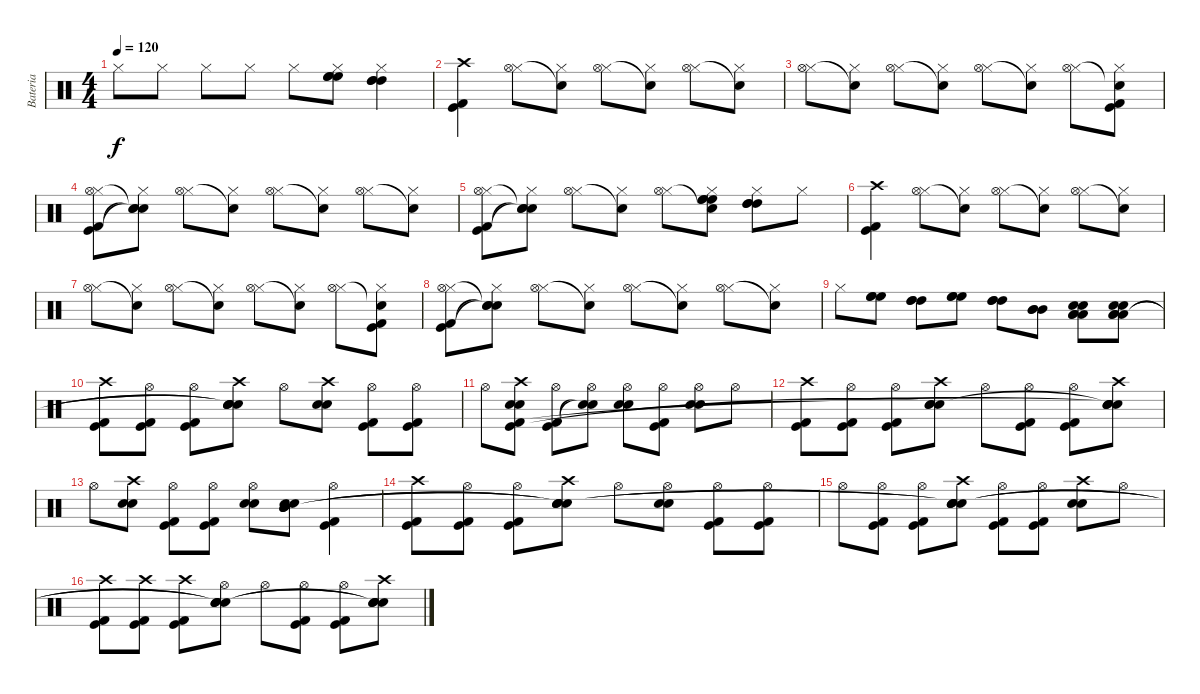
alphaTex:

\track ("Bateria" "Bateria") {instrument percussion}
\staff {score}
\articulation defaults
\ts (4 4)
\tempo 120
\clef neutral
\ks c "Hi-Hat (closed)".8{dy f} "Hi-Hat (closed)".8 "Hi-Hat (closed)".8 "Hi-Hat (closed)".8 "Hi-Hat (closed)".8
("Hi-Hat (closed)" "High Floor Tom (hit)" "High Floor Tom (hit)" "High Floor Tom (hit)").8 ("Hi-Hat (closed)" "High Tom (hit)" "High Tom (hit)" "High Tom (hit)").4 |
("Crash high (hit)" "Kick (hit)" "Kick (hit) 2").4 ("Hi-Hat (closed)" "Hi-Hat (open)").8 ("Hi-Hat (closed)" "Snare (hit)"{t}).8 ("Hi-Hat (closed)" "Hi-Hat (open)").8 ("Hi-Hat (closed)" "Snare (hit)"{t}).8 ("Hi-Hat (closed)" "Hi-Hat (open)").8 ("Hi-Hat (closed)" "Snare (hit)"{t}).8 |
("Hi-Hat (closed)" "Hi-Hat (open)").8 ("Hi-Hat (closed)" "Snare (hit)"{t}).8 ("Hi-Hat (closed)" "Hi-Hat (open)").8 ("Hi-Hat (closed)" "Snare (hit)"{t}).8 ("Hi-Hat (closed)" "Hi-Hat (open)").8 ("Hi-Hat (closed)" "Snare (hit)"{t}).8 ("Hi-Hat (closed)" "Hi-Hat (open)").8 ("Hi-Hat (closed)" "Snare (hit)"{t} "Kick (hit)" "Kick (hit) 2").8 |
("Hi-Hat (closed)" "Hi-Hat (open)" "Kick (hit)" "Kick (hit) 2").8 ("Hi-Hat (closed)" "Snare (hit)"{t} "Snare (hit)"{t} "Snare (hit)"{t}).8 ("Hi-Hat (closed)" "Hi-Hat (open)").8 ("Hi-Hat (closed)" "Snare (hit)"{t}).8 ("Hi-Hat (closed)" "Hi-Hat (open)").8 ("Hi-Hat (closed)" "Snare (hit)"{t}).8 ("Hi-Hat (closed)" "Hi-Hat (open)").8 ("Hi-Hat (closed)" "Snare (hit)"{t}).8 |
("Hi-Hat (closed)" "Hi-Hat (open)" "Kick (hit)" "Kick (hit) 2").8 ("Hi-Hat (closed)" "Snare (hit)"{t} "Snare (hit)"{t} "Snare (hit)"{t}).8 ("Hi-Hat (closed)" "Hi-Hat (open)").8 ("Hi-Hat (closed)" "Snare (hit)"{t}).8 ("Hi-Hat (closed)" "Hi-Hat (open)").8 ("Hi-Hat (closed)" "Snare (hit)"{t} "High Floor Tom (hit)" "High Floor Tom (hit)" "High Floor Tom (hit)").8 ("Hi-Hat (closed)" "High Tom (hit)" "High Tom (hit)" "High Tom (hit)").8 "Hi-Hat (closed)".8 |
("Crash high (hit)" "Kick (hit)" "Kick (hit) 2").4 ("Hi-Hat (closed)" "Hi-Hat (open)").8 ("Hi-Hat (closed)" "Snare (hit)"{t}).8 ("Hi-Hat (closed)" "Hi-Hat (open)").8 ("Hi-Hat (closed)" "Snare (hit)"{t}).8 ("Hi-Hat (closed)" "Hi-Hat (open)").8 ("Hi-Hat (closed)" "Snare (hit)"{t}).8 |
("Hi-Hat (closed)" "Hi-Hat (open)").8 ("Hi-Hat (closed)" "Snare (hit)"{t}).8 ("Hi-Hat (closed)" "Hi-Hat (open)").8 ("Hi-Hat (closed)" "Snare (hit)"{t}).8 ("Hi-Hat (closed)" "Hi-Hat (open)").8 ("Hi-Hat (closed)" "Snare (hit)"{t}).8 ("Hi-Hat (closed)" "Hi-Hat (open)").8 ("Hi-Hat (closed)" "Snare (hit)"{t} "Kick (hit)" "Kick (hit) 2").8 |
("Hi-Hat (closed)" "Hi-Hat (open)" "Kick (hit) 2" "Kick (hit)").8 ("Hi-Hat (closed)" "Snare (hit)"{t} "Snare (hit)"{t} "Snare (hit)"{t}).8 ("Hi-Hat (closed)" "Hi-Hat (open)").8 ("Hi-Hat (closed)" "Snare (hit)"{t}).8 ("Hi-Hat (closed)" "Hi-Hat (open)").8 ("Hi-Hat (closed)" "Snare (hit)"{t}).8 ("Hi-Hat (closed)" "Hi-Hat (open)").8 ("Hi-Hat (closed)" "Snare (hit)"{t}).8 |
"Hi-Hat (closed)".8 ("High Floor Tom (hit)" "High Floor Tom (hit)" "High Floor Tom (hit)").8 ("High Tom (hit)" "High Tom (hit)" "High Tom (hit)").8 ("High Floor Tom (hit)" "High Floor Tom (hit)" "High Floor Tom (hit)").8 ("High Tom (hit)" "High Tom (hit)" "High Tom (hit)").8 ("Mid Tom (hit)" "Mid Tom (hit)" "Mid Tom (hit)").8 ("Electric Snare (hit)" "Snare (hit) 2" "Low Tom (hit)" "Low Tom (hit)" "Low Tom (hit)").8 ("Electric Snare (hit)" "Snare (hit) 2" "Low Tom (hit)" "Low Tom (hit)" "Low Tom (hit)").8 |
("Crash high (hit)" "Kick (hit)" "Kick (hit) 2").8 ("Hi-Hat (open)" "Kick (hit)" "Kick (hit) 2").8 ("Hi-Hat (open)" "Kick (hit) 2" "Kick (hit)").8 ("Crash high (hit)" "Electric Snare (hit)" "Snare (hit) 2" "Snare (hit)"{t} "Snare (hit)"{t}).8 "Hi-Hat (open)".8 ("Crash high (hit)" "Electric Snare (hit)" "Snare (hit) 2").8 ("Hi-Hat (open)" "Kick (hit)" "Kick (hit) 2").8 ("Hi-Hat (open)" "Kick (hit)" "Kick (hit) 2").8 |
"Hi-Hat (open)".8 ("Crash high (hit)" "Electric Snare (hit)" "Snare (hit) 2" "Kick (hit)" "Kick (hit) 2").8 ("Hi-Hat (open)" "Kick (hit) 2" "Kick (hit)").8 ("Hi-Hat (open)" "Snare (hit)"{t} "Snare (hit)"{t}).8 ("Hi-Hat (open)" "Electric Snare (hit)" "Snare (hit) 2").8 ("Hi-Hat (open)" "Kick (hit)" "Kick (hit) 2").8 ("Hi-Hat (open)" "Electric Snare (hit)" "Snare (hit) 2").8 "Hi-Hat (open)".8 |
("Crash high (hit)" "Kick (hit)" "Kick (hit) 2").8 ("Hi-Hat (open)" "Kick (hit)" "Kick (hit) 2").8 ("Hi-Hat (open)" "Kick (hit)" "Kick (hit) 2").8 ("Crash high (hit)" "Electric Snare (hit)" "Snare (hit) 2" "Snare (hit)"{t}).8 "Hi-Hat (open)".8 ("Hi-Hat (open)" "Kick (hit)" "Kick (hit) 2").8 ("Hi-Hat (open)" "Kick (hit)" "Kick (hit) 2").8 ("Crash high (hit)" "Electric Snare (hit)" "Snare (hit) 2" "Snare (hit)"{t} "Snare (hit)"{t}).8 |
"Hi-Hat (open)".8 ("Crash high (hit)" "Electric Snare (hit)" "Snare (hit) 2").8 ("Hi-Hat (open)" "Kick (hit)" "Kick (hit) 2").8 ("Hi-Hat (open)" "Kick (hit)" "Kick (hit) 2").8 ("Hi-Hat (open)" "Electric Snare (hit)" "Snare (hit) 2").8 ("Electric Snare (hit)" "Snare (hit) 2" "Mid Tom (hit)" "Mid Tom (hit)" "Mid Tom (hit)").8 ("Hi-Hat (open)" "Kick (hit) 2" "Kick (hit)").4 |
("Crash high (hit)" "Kick (hit)" "Kick (hit) 2").8 ("Hi-Hat (open)" "Kick (hit) 2" "Kick (hit)").8 ("Hi-Hat (open)" "Kick (hit)" "Kick (hit) 2").8 ("Crash high (hit)" "Electric Snare (hit)" "Snare (hit) 2" "Snare (hit)"{t} "Snare (hit)"{t}).8 "Hi-Hat (open)".8 ("Hi-Hat (open)" "Electric Snare (hit)" "Snare (hit) 2").8 ("Hi-Hat (open)" "Kick (hit)" "Kick (hit) 2").8 ("Hi-Hat (open)" "Kick (hit)" "Kick (hit) 2").8 |
"Hi-Hat (open)".8 ("Hi-Hat (open)" "Kick (hit)" "Kick (hit) 2").8 ("Hi-Hat (open)" "Kick (hit)" "Kick (hit) 2").8 ("Crash high (hit)" "Electric Snare (hit)" "Snare (hit) 2" "Snare (hit)"{t} "Snare (hit)"{t}).8 ("Hi-Hat (open)" "Kick (hit)" "Kick (hit) 2").8 ("Hi-Hat (open)" "Kick (hit)" "Kick (hit) 2").8 ("Crash high (hit)" "Electric Snare (hit)" "Snare (hit) 2").8 "Hi-Hat (open)".8 |
("Crash high (hit)" "Kick (hit)" "Kick (hit) 2").8 ("Crash high (hit)" "Kick (hit)" "Kick (hit) 2").8 ("Crash high (hit)" "Kick (hit)" "Kick (hit) 2").8 ("Hi-Hat (open)" "Electric Snare (hit)" "Snare (hit) 2" "Snare (hit)"{t} "Snare (hit)"{t}).8 "Hi-Hat (open)".8 ("Hi-Hat (open)" "Kick (hit)" "Kick (hit) 2").8 ("Hi-Hat (open)" "Kick (hit)" "Kick (hit) 2").8 ("Crash high (hit)" "Electric Snare (hit)" "Snare (hit) 2" "Snare (hit)"{t} "Snare (hit)"{t}).8
